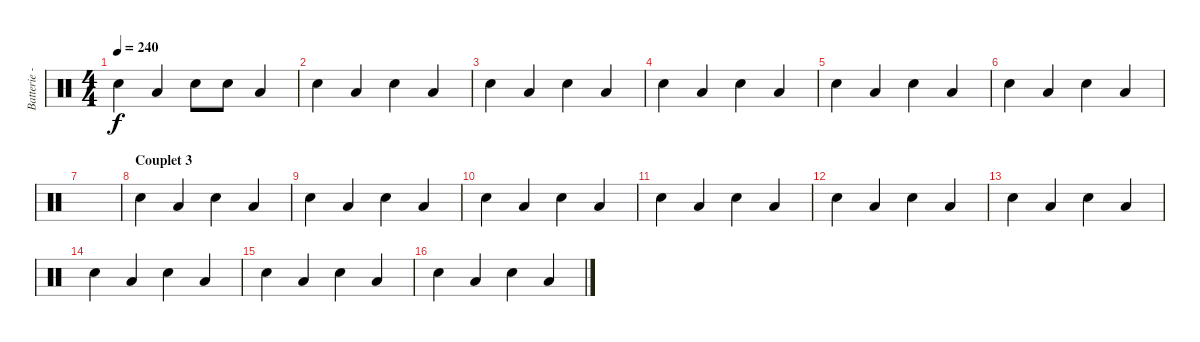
\track ("Batterie - Guillaume" "Batterie -") {instrument percussion}
\staff {score}
\articulation defaults
\ts (4 4)
\tempo 240
\clef neutral
\ks c "Electric Snare (hit)".4{dy f} "Low Tom (hit)".4 "Electric Snare (hit)".8 "Electric Snare (hit)".8 "Low Tom (hit)".4
|
"Electric Snare (hit)".4 "Low Tom (hit)".4 "Electric Snare (hit)".4 "Low Tom (hit)".4 |
"Electric Snare (hit)".4 "Low Tom (hit)".4 "Electric Snare (hit)".4 "Low Tom (hit)".4 |
"Electric Snare (hit)".4 "Low Tom (hit)".4 "Electric Snare (hit)".4 "Low Tom (hit)".4 |
"Electric Snare (hit)".4 "Low Tom (hit)".4 "Electric Snare (hit)".4 "Low Tom (hit)".4 |
"Electric Snare (hit)".4 "Low Tom (hit)".4 "Electric Snare (hit)".4 "Low Tom (hit)".4 |
|
\section ("" "Couplet 3")
"Electric Snare (hit)".4 "Low Tom (hit)".4 "Electric Snare (hit)".4 "Low Tom (hit)".4 |
"Electric Snare (hit)".4 "Low Tom (hit)".4 "Electric Snare (hit)".4 "Low Tom (hit)".4 |
"Electric Snare (hit)".4 "Low Tom (hit)".4 "Electric Snare (hit)".4 "Low Tom (hit)".4 |
"Electric Snare (hit)".4 "Low Tom (hit)".4 "Electric Snare (hit)".4 "Low Tom (hit)".4 |
"Electric Snare (hit)".4 "Low Tom (hit)".4 "Electric Snare (hit)".4 "Low Tom (hit)".4 |
"Electric Snare (hit)".4 "Low Tom (hit)".4 "Electric Snare (hit)".4 "Low Tom (hit)".4 |
"Electric Snare (hit)".4 "Low Tom (hit)".4 "Electric Snare (hit)".4 "Low Tom (hit)".4 |
"Electric Snare (hit)".4 "Low Tom (hit)".4 "Electric Snare (hit)".4 "Low Tom (hit)".4 |
"Electric Snare (hit)".4 "Low Tom (hit)".4 "Electric Snare (hit)".4 "Low Tom (hit)".4
